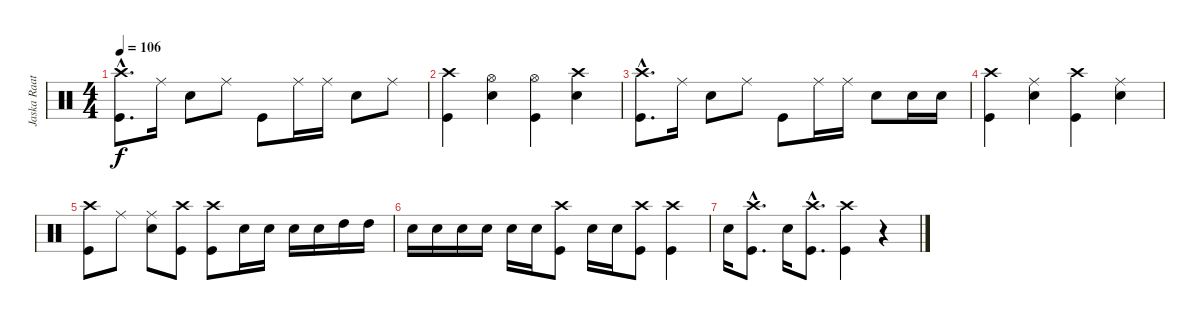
\track ("Jaska Raatikainen" "Jaska Raat") {instrument percussion}
\staff {score}
\articulation defaults
\ts (4 4)
\tempo 106
\clef neutral
\ks c
("Crash high (hit)"{hac} "Kick (hit)"{hac}).8{d dy f} "Ride (middle)".16 "Snare (hit) 2".8 "Ride (middle)".8 "Kick (hit)".8 "Ride (middle)".16 "Ride (middle)".16 "Snare (hit) 2".8 "Ride (middle)".8 |
("Crash high (hit)" "Kick (hit)").4 ("Hi-Hat (open)" "Snare (hit) 2").4 ("Hi-Hat (open)" "Kick (hit)").4 ("Crash high (hit)" "Snare (hit) 2").4 |
("Crash high (hit)"{hac} "Kick (hit)"{hac}).8{d} "Ride (middle)".16 "Snare (hit) 2".8 "Ride (middle)".8 "Kick (hit)".8 "Ride (middle)".16 "Ride (middle)".16 "Snare (hit) 2".8 "Snare (hit) 2".16 "Snare (hit) 2".16 |
("Crash high (hit)" "Kick (hit)").4 ("Ride (middle)" "Snare (hit) 2").4 ("Crash high (hit)" "Kick (hit)").4 ("Ride (middle)" "Snare (hit) 2").4 |
("Crash high (hit)" "Kick (hit)").8 "Ride (middle)".8 ("Ride (middle)" "Snare (hit) 2").8 ("Crash high (hit)" "Kick (hit)").8 ("Crash high (hit)" "Kick (hit)").8 "Snare (hit) 2".16 "Snare (hit) 2".16 "Snare (hit) 2".16 "Snare (hit) 2".16 "High Tom (hit)".16 "High Tom (hit)".16 |
"Snare (hit) 2".16 "Snare (hit) 2".16 "Snare (hit) 2".16 "Snare (hit) 2".16 "Snare (hit) 2".16 "Snare (hit) 2".16 ("Crash high (hit)" "Kick (hit)").8 "Snare (hit) 2".16 "Snare (hit) 2".16 ("Crash high (hit)" "Kick (hit)").8 ("Crash high (hit)" "Kick (hit)").4 |
"Snare (hit) 2".16 ("Crash high (hit)"{hac} "Kick (hit)"{hac}).8{d} "Snare (hit) 2".16 ("Crash high (hit)"{hac} "Kick (hit)"{hac}).8{d} ("Crash high (hit)" "Kick (hit)").4 r.4
